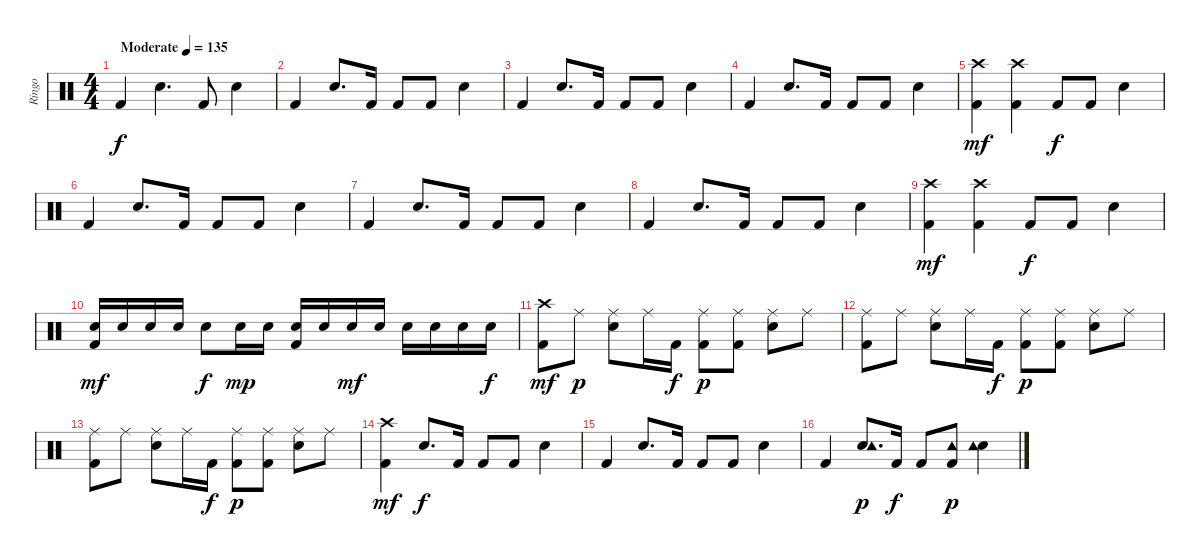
\track ("Ringo" "Ringo") {instrument percussion}
\staff {score}
\articulation defaults
\ts (4 4)
\tempo (135 "Moderate")
\clef neutral
\ks c "Kick (hit) 2".4{dy f} "Electric Snare (hit)".4{d} "Kick (hit) 2".8 "Electric Snare (hit)".4
|
"Kick (hit) 2".4 "Electric Snare (hit)".8{d} "Kick (hit) 2".16 "Kick (hit) 2".8 "Kick (hit) 2".8 "Electric Snare (hit)".4 |
"Kick (hit) 2".4 "Electric Snare (hit)".8{d} "Kick (hit) 2".16 "Kick (hit) 2".8 "Kick (hit) 2".8 "Electric Snare (hit)".4 |
"Kick (hit) 2".4 "Electric Snare (hit)".8{d} "Kick (hit) 2".16 "Kick (hit) 2".8 "Kick (hit) 2".8 "Electric Snare (hit)".4 |
("Crash high (hit)" "Kick (hit) 2").4{dy mf} ("Crash high (hit)" "Kick (hit) 2").4 "Kick (hit) 2".8{dy f} "Kick (hit) 2".8 "Electric Snare (hit)".4 |
"Kick (hit) 2".4 "Electric Snare (hit)".8{d} "Kick (hit) 2".16 "Kick (hit) 2".8 "Kick (hit) 2".8 "Electric Snare (hit)".4 |
"Kick (hit) 2".4 "Electric Snare (hit)".8{d} "Kick (hit) 2".16 "Kick (hit) 2".8 "Kick (hit) 2".8 "Electric Snare (hit)".4 |
"Kick (hit) 2".4 "Electric Snare (hit)".8{d} "Kick (hit) 2".16 "Kick (hit) 2".8 "Kick (hit) 2".8 "Electric Snare (hit)".4 |
("Crash high (hit)" "Kick (hit) 2").4{dy mf} ("Crash high (hit)" "Kick (hit) 2").4 "Kick (hit) 2".8{dy f} "Kick (hit) 2".8 "Electric Snare (hit)".4 |
("Electric Snare (hit)" "Kick (hit) 2").16{dy mf} "Electric Snare (hit)".16 "Electric Snare (hit)".16 "Electric Snare (hit)".16 "Electric Snare (hit)".8{dy f} "Electric Snare (hit)".16{dy mp} "Electric Snare (hit)".16 ("Electric Snare (hit)" "Kick (hit) 2").16 "Electric Snare (hit)".16 "Electric Snare (hit)".16{dy mf} "Electric Snare (hit)".16 "Electric Snare (hit)".16 "Electric Snare (hit)".16 "Electric Snare (hit)".16 "Electric Snare (hit)".16{dy f} |
("Crash high (hit)" "Kick (hit) 2").8{dy mf} "Ride (middle)".8{dy p} ("Ride (middle)" "Electric Snare (hit)").8 "Ride (middle)".16 "Kick (hit) 2".16{dy f} ("Ride (middle)" "Kick (hit) 2").8{dy p} ("Ride (middle)" "Kick (hit) 2").8 ("Ride (middle)" "Electric Snare (hit)").8 "Ride (middle)".8 |
("Ride (middle)" "Kick (hit) 2").8 "Ride (middle)".8 ("Ride (middle)" "Electric Snare (hit)").8 "Ride (middle)".16 "Kick (hit) 2".16{dy f} ("Ride (middle)" "Kick (hit) 2").8{dy p} ("Ride (middle)" "Kick (hit) 2").8 ("Ride (middle)" "Electric Snare (hit)").8 "Ride (middle)".8 |
("Ride (middle)" "Kick (hit) 2").8 "Ride (middle)".8 ("Ride (middle)" "Electric Snare (hit)").8 "Ride (middle)".16 "Kick (hit) 2".16{dy f} ("Ride (middle)" "Kick (hit) 2").8{dy p} ("Ride (middle)" "Kick (hit) 2").8 ("Ride (middle)" "Electric Snare (hit)").8 "Ride (middle)".8 |
("Crash high (hit)" "Kick (hit) 2").4{dy mf} "Electric Snare (hit)".8{d dy f} "Kick (hit) 2".16 "Kick (hit) 2".8 "Kick (hit) 2".8 "Electric Snare (hit)".4 |
"Kick (hit) 2".4 "Electric Snare (hit)".8{d} "Kick (hit) 2".16 "Kick (hit) 2".8 "Kick (hit) 2".8 "Electric Snare (hit)".4 |
"Kick (hit) 2".4 ("Electric Snare (hit)" "Tambourine (hit)").8{d dy p} "Kick (hit) 2".16{dy f} "Kick (hit) 2".8 ("Kick (hit) 2" "Tambourine (hit)").8{dy p} ("Electric Snare (hit)" "Tambourine (hit)").4
